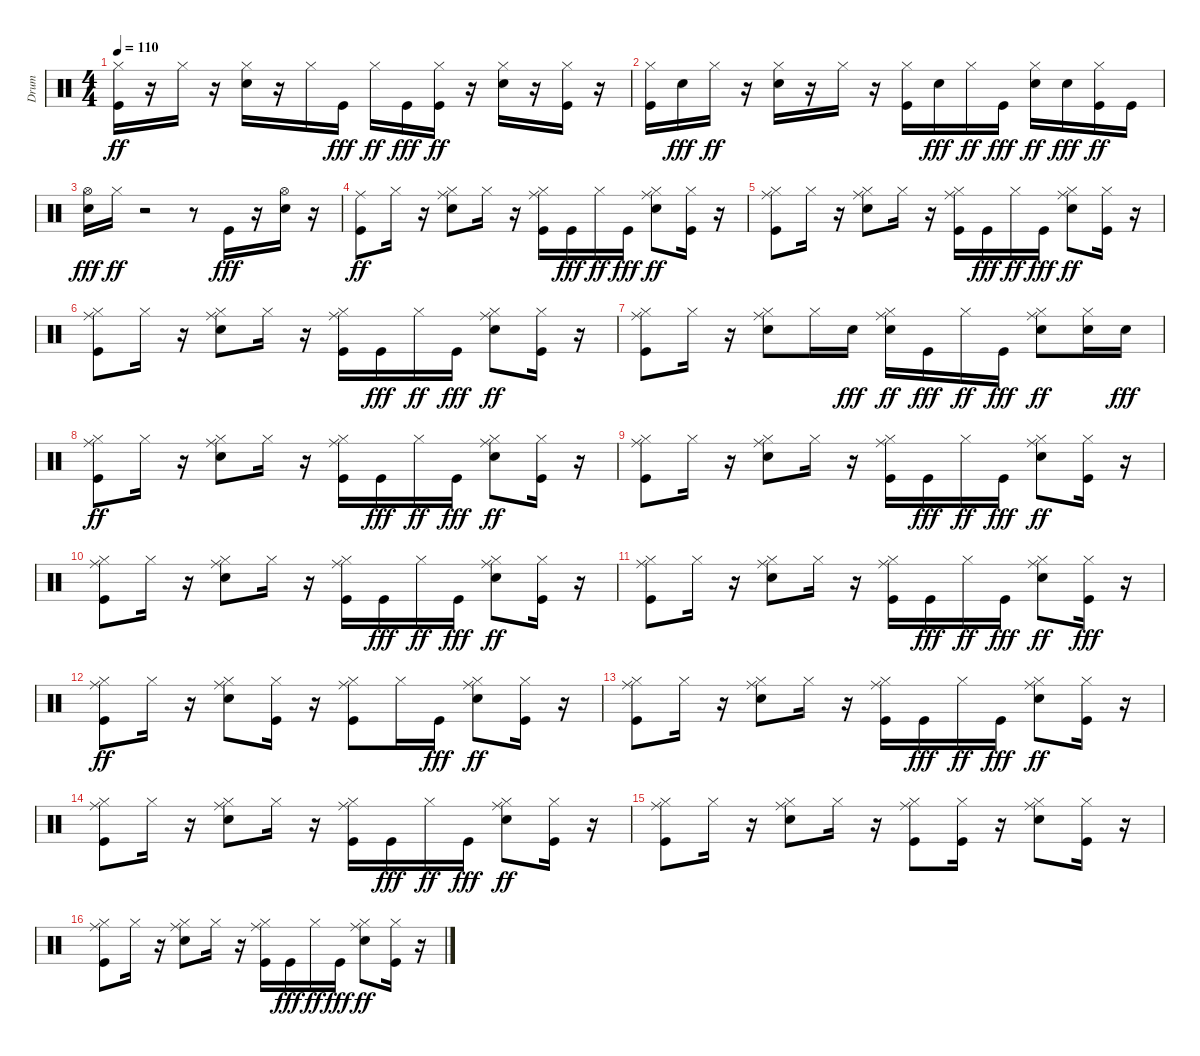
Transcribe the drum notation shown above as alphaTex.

\track ("Drum" "Drum") {instrument percussion}
\staff {score}
\articulation defaults
\ts (4 4)
\tempo 110
\clef neutral
\ks c
("Kick (hit)" "Hi-Hat (closed)").16{dy ff} r.16 "Hi-Hat (closed)".16 r.16 ("Electric Snare (hit)" "Hi-Hat (closed)").16 r.16 "Hi-Hat (closed)".16 "Kick (hit)".16{dy fff} "Hi-Hat (closed)".16{dy ff} "Kick (hit)".16{dy fff} ("Kick (hit)" "Hi-Hat (closed)").16{dy ff} r.16 ("Electric Snare (hit)" "Hi-Hat (closed)").16 r.16 ("Kick (hit)" "Hi-Hat (closed)").16 r.16 |
("Kick (hit)" "Hi-Hat (closed)").16 "Electric Snare (hit)".16{dy fff} "Hi-Hat (closed)".16{dy ff} r.16 ("Electric Snare (hit)" "Hi-Hat (closed)").16 r.16 "Hi-Hat (closed)".16 r.16 ("Kick (hit)" "Hi-Hat (closed)").16 "Electric Snare (hit)".16{dy fff} "Hi-Hat (closed)".16{dy ff} "Kick (hit)".16{dy fff} ("Electric Snare (hit)" "Hi-Hat (closed)").16{dy ff} "Electric Snare (hit)".16{dy fff} ("Kick (hit)" "Hi-Hat (closed)").16{dy ff} "Kick (hit)".16 |
("Hi-Hat (open)" "Electric Snare (hit)").16{dy fff} "Hi-Hat (closed)".16{dy ff} r.2 r.8 "Kick (hit)".16{dy fff} r.16 ("Hi-Hat (open)" "Electric Snare (hit)").16 r.16 |
("Kick (hit)" "Ride (middle)").8{dy ff} "Hi-Hat (closed)".16 r.16 ("Electric Snare (hit)" "Hi-Hat (closed)" "Ride (middle)").8 "Hi-Hat (closed)".16 r.16 ("Kick (hit)" "Hi-Hat (closed)" "Ride (middle)").16 "Kick (hit)".16{dy fff} "Hi-Hat (closed)".16{dy ff} "Kick (hit)".16{dy fff} ("Electric Snare (hit)" "Hi-Hat (closed)" "Ride (middle)").8{dy ff} ("Kick (hit)" "Hi-Hat (closed)").16 r.16 |
("Kick (hit)" "Hi-Hat (closed)" "Ride (middle)").8 "Hi-Hat (closed)".16 r.16 ("Electric Snare (hit)" "Hi-Hat (closed)" "Ride (middle)").8 "Hi-Hat (closed)".16 r.16 ("Kick (hit)" "Hi-Hat (closed)" "Ride (middle)").16 "Kick (hit)".16{dy fff} "Hi-Hat (closed)".16{dy ff} "Kick (hit)".16{dy fff} ("Electric Snare (hit)" "Hi-Hat (closed)" "Ride (middle)").8{dy ff} ("Kick (hit)" "Hi-Hat (closed)").16 r.16 |
("Kick (hit)" "Hi-Hat (closed)" "Ride (middle)").8 "Hi-Hat (closed)".16 r.16 ("Electric Snare (hit)" "Hi-Hat (closed)" "Ride (middle)").8 "Hi-Hat (closed)".16 r.16 ("Kick (hit)" "Hi-Hat (closed)" "Ride (middle)").16 "Kick (hit)".16{dy fff} "Hi-Hat (closed)".16{dy ff} "Kick (hit)".16{dy fff} ("Electric Snare (hit)" "Hi-Hat (closed)" "Ride (middle)").8{dy ff} ("Kick (hit)" "Hi-Hat (closed)").16 r.16 |
("Kick (hit)" "Hi-Hat (closed)" "Ride (middle)").8 "Hi-Hat (closed)".16 r.16 ("Electric Snare (hit)" "Hi-Hat (closed)" "Ride (middle)").8 "Hi-Hat (closed)".16 "Electric Snare (hit)".16{dy fff} ("Electric Snare (hit)" "Hi-Hat (closed)" "Ride (middle)").16{dy ff} "Kick (hit)".16{dy fff} "Hi-Hat (closed)".16{dy ff} "Kick (hit)".16{dy fff} ("Electric Snare (hit)" "Hi-Hat (closed)" "Ride (middle)").8{dy ff} ("Electric Snare (hit)" "Hi-Hat (closed)").16 "Electric Snare (hit)".16{dy fff} |
("Kick (hit)" "Hi-Hat (closed)" "Ride (middle)").8{dy ff} "Hi-Hat (closed)".16 r.16 ("Electric Snare (hit)" "Hi-Hat (closed)" "Ride (middle)").8 "Hi-Hat (closed)".16 r.16 ("Kick (hit)" "Hi-Hat (closed)" "Ride (middle)").16 "Kick (hit)".16{dy fff} "Hi-Hat (closed)".16{dy ff} "Kick (hit)".16{dy fff} ("Electric Snare (hit)" "Hi-Hat (closed)" "Ride (middle)").8{dy ff} ("Kick (hit)" "Hi-Hat (closed)").16 r.16 |
("Kick (hit)" "Hi-Hat (closed)" "Ride (middle)").8 "Hi-Hat (closed)".16 r.16 ("Electric Snare (hit)" "Hi-Hat (closed)" "Ride (middle)").8 "Hi-Hat (closed)".16 r.16 ("Kick (hit)" "Hi-Hat (closed)" "Ride (middle)").16 "Kick (hit)".16{dy fff} "Hi-Hat (closed)".16{dy ff} "Kick (hit)".16{dy fff} ("Electric Snare (hit)" "Hi-Hat (closed)" "Ride (middle)").8{dy ff} ("Kick (hit)" "Hi-Hat (closed)").16 r.16 |
("Kick (hit)" "Hi-Hat (closed)" "Ride (middle)").8 "Hi-Hat (closed)".16 r.16 ("Electric Snare (hit)" "Hi-Hat (closed)" "Ride (middle)").8 "Hi-Hat (closed)".16 r.16 ("Kick (hit)" "Hi-Hat (closed)" "Ride (middle)").16 "Kick (hit)".16{dy fff} "Hi-Hat (closed)".16{dy ff} "Kick (hit)".16{dy fff} ("Electric Snare (hit)" "Hi-Hat (closed)" "Ride (middle)").8{dy ff} ("Kick (hit)" "Hi-Hat (closed)").16 r.16 |
("Kick (hit)" "Hi-Hat (closed)" "Ride (middle)").8 "Hi-Hat (closed)".16 r.16 ("Electric Snare (hit)" "Hi-Hat (closed)" "Ride (middle)").8 "Hi-Hat (closed)".16 r.16 ("Kick (hit)" "Hi-Hat (closed)" "Ride (middle)").16 "Kick (hit)".16{dy fff} "Hi-Hat (closed)".16{dy ff} "Kick (hit)".16{dy fff} ("Electric Snare (hit)" "Hi-Hat (closed)" "Ride (middle)").8{dy ff} ("Hi-Hat (closed)" "Kick (hit)").16{dy fff} r.16 |
("Kick (hit)" "Hi-Hat (closed)" "Ride (middle)").8{dy ff} "Hi-Hat (closed)".16 r.16 ("Electric Snare (hit)" "Hi-Hat (closed)" "Ride (middle)").8 ("Kick (hit)" "Hi-Hat (closed)").16 r.16 ("Kick (hit)" "Hi-Hat (closed)" "Ride (middle)").8 "Hi-Hat (closed)".16 "Kick (hit)".16{dy fff} ("Electric Snare (hit)" "Hi-Hat (closed)" "Ride (middle)").8{dy ff} ("Kick (hit)" "Hi-Hat (closed)").16 r.16 |
("Kick (hit)" "Hi-Hat (closed)" "Ride (middle)").8 "Hi-Hat (closed)".16 r.16 ("Electric Snare (hit)" "Hi-Hat (closed)" "Ride (middle)").8 "Hi-Hat (closed)".16 r.16 ("Kick (hit)" "Hi-Hat (closed)" "Ride (middle)").16 "Kick (hit)".16{dy fff} "Hi-Hat (closed)".16{dy ff} "Kick (hit)".16{dy fff} ("Electric Snare (hit)" "Hi-Hat (closed)" "Ride (middle)").8{dy ff} ("Kick (hit)" "Hi-Hat (closed)").16 r.16 |
("Kick (hit)" "Hi-Hat (closed)" "Ride (middle)").8 "Hi-Hat (closed)".16 r.16 ("Electric Snare (hit)" "Hi-Hat (closed)" "Ride (middle)").8 "Hi-Hat (closed)".16 r.16 ("Kick (hit)" "Hi-Hat (closed)" "Ride (middle)").16 "Kick (hit)".16{dy fff} "Hi-Hat (closed)".16{dy ff} "Kick (hit)".16{dy fff} ("Electric Snare (hit)" "Hi-Hat (closed)" "Ride (middle)").8{dy ff} ("Kick (hit)" "Hi-Hat (closed)").16 r.16 |
("Kick (hit)" "Hi-Hat (closed)" "Ride (middle)").8 "Hi-Hat (closed)".16 r.16 ("Electric Snare (hit)" "Hi-Hat (closed)" "Ride (middle)").8 "Hi-Hat (closed)".16 r.16 ("Kick (hit)" "Hi-Hat (closed)" "Ride (middle)").8 ("Kick (hit)" "Hi-Hat (closed)").16 r.16 ("Electric Snare (hit)" "Hi-Hat (closed)" "Ride (middle)").8 ("Kick (hit)" "Hi-Hat (closed)").16 r.16 |
("Kick (hit)" "Hi-Hat (closed)" "Ride (middle)").8 "Hi-Hat (closed)".16 r.16 ("Electric Snare (hit)" "Hi-Hat (closed)" "Ride (middle)").8 "Hi-Hat (closed)".16 r.16 ("Kick (hit)" "Hi-Hat (closed)" "Ride (middle)").16 "Kick (hit)".16{dy fff} "Hi-Hat (closed)".16{dy ff} "Kick (hit)".16{dy fff} ("Electric Snare (hit)" "Hi-Hat (closed)" "Ride (middle)").8{dy ff} ("Kick (hit)" "Hi-Hat (closed)").16 r.16
